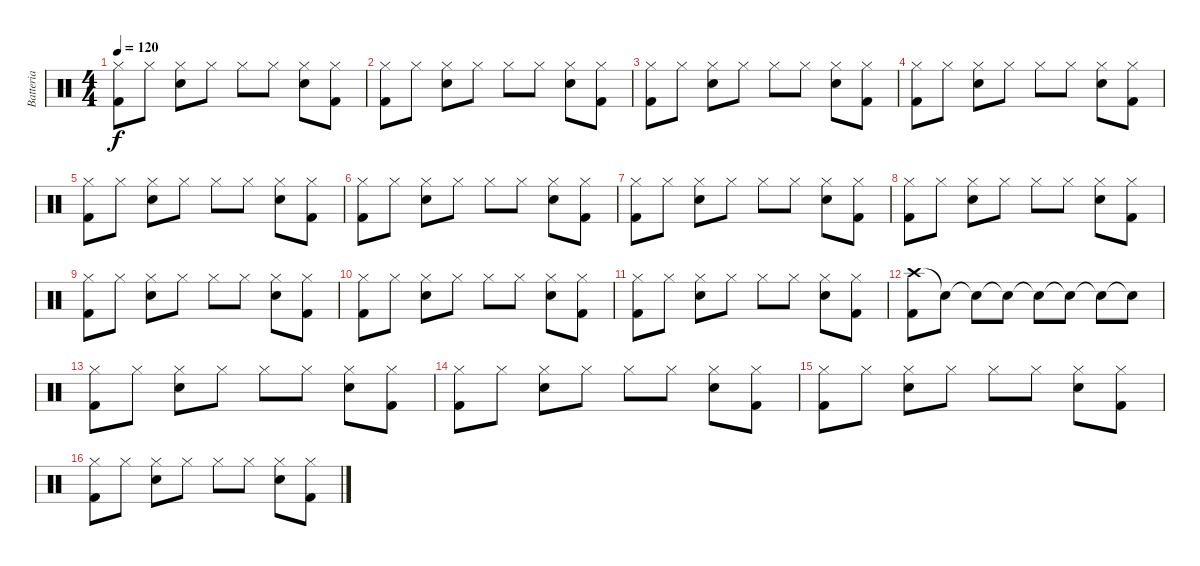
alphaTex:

\track ("Batteria" "Batteria") {instrument percussion}
\staff {score}
\articulation defaults
\ts (4 4)
\tempo 120
\clef neutral
\ks c
("Kick (hit) 2" "Hi-Hat (closed)").8{dy f} "Hi-Hat (closed)".8 ("Hi-Hat (closed)" "Snare (hit) 2").8 "Hi-Hat (closed)".8 "Hi-Hat (closed)".8 "Hi-Hat (closed)".8 ("Snare (hit) 2" "Hi-Hat (closed)").8 ("Hi-Hat (closed)" "Kick (hit) 2").8 |
("Kick (hit) 2" "Hi-Hat (closed)").8 "Hi-Hat (closed)".8 ("Hi-Hat (closed)" "Snare (hit) 2").8 "Hi-Hat (closed)".8 "Hi-Hat (closed)".8 "Hi-Hat (closed)".8 ("Snare (hit) 2" "Hi-Hat (closed)").8 ("Hi-Hat (closed)" "Kick (hit) 2").8 |
("Kick (hit) 2" "Hi-Hat (closed)").8 "Hi-Hat (closed)".8 ("Hi-Hat (closed)" "Snare (hit) 2").8 "Hi-Hat (closed)".8 "Hi-Hat (closed)".8 "Hi-Hat (closed)".8 ("Snare (hit) 2" "Hi-Hat (closed)").8 ("Hi-Hat (closed)" "Kick (hit) 2").8 |
("Kick (hit) 2" "Hi-Hat (closed)").8 "Hi-Hat (closed)".8 ("Hi-Hat (closed)" "Snare (hit) 2").8 "Hi-Hat (closed)".8 "Hi-Hat (closed)".8 "Hi-Hat (closed)".8 ("Snare (hit) 2" "Hi-Hat (closed)").8 ("Hi-Hat (closed)" "Kick (hit) 2").8 |
("Kick (hit) 2" "Hi-Hat (closed)").8 "Hi-Hat (closed)".8 ("Hi-Hat (closed)" "Snare (hit) 2").8 "Hi-Hat (closed)".8 "Hi-Hat (closed)".8 "Hi-Hat (closed)".8 ("Snare (hit) 2" "Hi-Hat (closed)").8 ("Hi-Hat (closed)" "Kick (hit) 2").8 |
("Kick (hit) 2" "Hi-Hat (closed)").8 "Hi-Hat (closed)".8 ("Hi-Hat (closed)" "Snare (hit) 2").8 "Hi-Hat (closed)".8 "Hi-Hat (closed)".8 "Hi-Hat (closed)".8 ("Snare (hit) 2" "Hi-Hat (closed)").8 ("Hi-Hat (closed)" "Kick (hit) 2").8 |
("Kick (hit) 2" "Hi-Hat (closed)").8 "Hi-Hat (closed)".8 ("Hi-Hat (closed)" "Snare (hit) 2").8 "Hi-Hat (closed)".8 "Hi-Hat (closed)".8 "Hi-Hat (closed)".8 ("Snare (hit) 2" "Hi-Hat (closed)").8 ("Hi-Hat (closed)" "Kick (hit) 2").8 |
("Kick (hit) 2" "Hi-Hat (closed)").8 "Hi-Hat (closed)".8 ("Hi-Hat (closed)" "Snare (hit) 2").8 "Hi-Hat (closed)".8 "Hi-Hat (closed)".8 "Hi-Hat (closed)".8 ("Snare (hit) 2" "Hi-Hat (closed)").8 ("Hi-Hat (closed)" "Kick (hit) 2").8 |
("Kick (hit) 2" "Hi-Hat (closed)").8 "Hi-Hat (closed)".8 ("Hi-Hat (closed)" "Snare (hit) 2").8 "Hi-Hat (closed)".8 "Hi-Hat (closed)".8 "Hi-Hat (closed)".8 ("Snare (hit) 2" "Hi-Hat (closed)").8 ("Hi-Hat (closed)" "Kick (hit) 2").8 |
("Kick (hit) 2" "Hi-Hat (closed)").8 "Hi-Hat (closed)".8 ("Hi-Hat (closed)" "Snare (hit) 2").8 "Hi-Hat (closed)".8 "Hi-Hat (closed)".8 "Hi-Hat (closed)".8 ("Snare (hit) 2" "Hi-Hat (closed)").8 ("Hi-Hat (closed)" "Kick (hit) 2").8 |
("Kick (hit) 2" "Hi-Hat (closed)").8 "Hi-Hat (closed)".8 ("Hi-Hat (closed)" "Snare (hit) 2").8 "Hi-Hat (closed)".8 "Hi-Hat (closed)".8 "Hi-Hat (closed)".8 ("Snare (hit) 2" "Hi-Hat (closed)").8 ("Hi-Hat (closed)" "Kick (hit) 2").8 |
("Crash high (hit)" "Kick (hit) 2").8 "Snare (hit)"{t}.8 "Snare (hit)"{t}.8 "Snare (hit)"{t}.8 "Snare (hit)"{t}.8 "Snare (hit)"{t}.8 "Snare (hit)"{t}.8 "Snare (hit)"{t}.8 |
("Kick (hit) 2" "Hi-Hat (closed)").8 "Hi-Hat (closed)".8 ("Hi-Hat (closed)" "Snare (hit) 2").8 "Hi-Hat (closed)".8 "Hi-Hat (closed)".8 "Hi-Hat (closed)".8 ("Snare (hit) 2" "Hi-Hat (closed)").8 ("Hi-Hat (closed)" "Kick (hit) 2").8 |
("Kick (hit) 2" "Hi-Hat (closed)").8 "Hi-Hat (closed)".8 ("Hi-Hat (closed)" "Snare (hit) 2").8 "Hi-Hat (closed)".8 "Hi-Hat (closed)".8 "Hi-Hat (closed)".8 ("Snare (hit) 2" "Hi-Hat (closed)").8 ("Hi-Hat (closed)" "Kick (hit) 2").8 |
("Kick (hit) 2" "Hi-Hat (closed)").8 "Hi-Hat (closed)".8 ("Hi-Hat (closed)" "Snare (hit) 2").8 "Hi-Hat (closed)".8 "Hi-Hat (closed)".8 "Hi-Hat (closed)".8 ("Snare (hit) 2" "Hi-Hat (closed)").8 ("Hi-Hat (closed)" "Kick (hit) 2").8 |
("Kick (hit) 2" "Hi-Hat (closed)").8 "Hi-Hat (closed)".8 ("Hi-Hat (closed)" "Snare (hit) 2").8 "Hi-Hat (closed)".8 "Hi-Hat (closed)".8 "Hi-Hat (closed)".8 ("Snare (hit) 2" "Hi-Hat (closed)").8 ("Hi-Hat (closed)" "Kick (hit) 2").8
